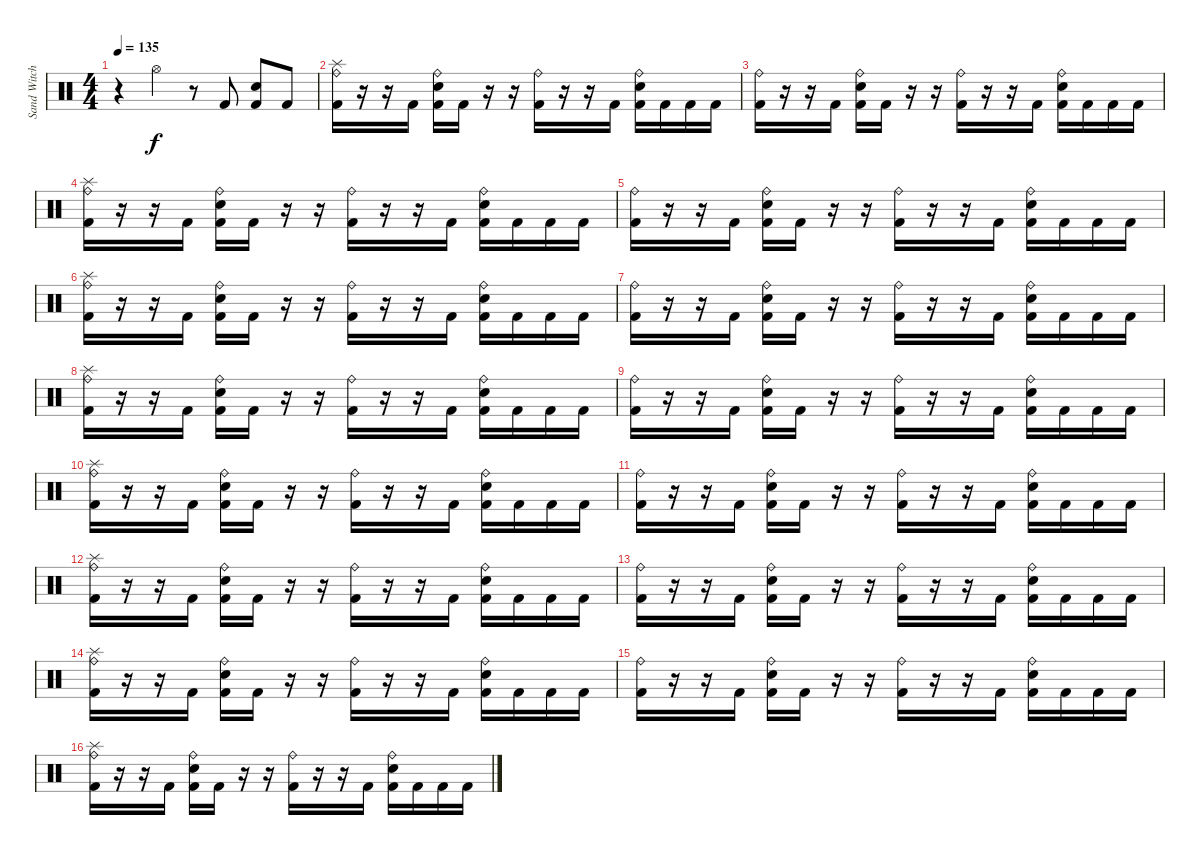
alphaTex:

\track ("Sand Witch" "Sand Witch") {instrument percussion}
\staff {score}
\articulation defaults
\ts (4 4)
\tempo 135
\clef neutral
\ks c
r.4{dy f} "Hi-Hat (open)".4 r.8 "Kick (hit) 2".8 ("Kick (hit) 2" "Snare (hit) 2").8 "Kick (hit) 2".8 |
("Ride (bell)" "Splash (hit)" "Kick (hit) 2").16 r.16 r.16 "Kick (hit) 2".16 ("Ride (bell)" "Snare (hit) 2" "Kick (hit) 2").16 "Kick (hit) 2".16 r.16 r.16 ("Ride (bell)" "Kick (hit) 2").16 r.16 r.16 "Kick (hit) 2".16 ("Ride (bell)" "Snare (hit) 2" "Kick (hit) 2").16 "Kick (hit) 2".16 "Kick (hit) 2".16 "Kick (hit) 2".16 |
("Ride (bell)" "Kick (hit) 2").16 r.16 r.16 "Kick (hit) 2".16 ("Ride (bell)" "Snare (hit) 2" "Kick (hit) 2").16 "Kick (hit) 2".16 r.16 r.16 ("Ride (bell)" "Kick (hit) 2").16 r.16 r.16 "Kick (hit) 2".16 ("Ride (bell)" "Snare (hit) 2" "Kick (hit) 2").16 "Kick (hit) 2".16 "Kick (hit) 2".16 "Kick (hit) 2".16 |
("Ride (bell)" "Splash (hit)" "Kick (hit) 2").16 r.16 r.16 "Kick (hit) 2".16 ("Ride (bell)" "Snare (hit) 2" "Kick (hit) 2").16 "Kick (hit) 2".16 r.16 r.16 ("Ride (bell)" "Kick (hit) 2").16 r.16 r.16 "Kick (hit) 2".16 ("Ride (bell)" "Snare (hit) 2" "Kick (hit) 2").16 "Kick (hit) 2".16 "Kick (hit) 2".16 "Kick (hit) 2".16 |
("Ride (bell)" "Kick (hit) 2").16 r.16 r.16 "Kick (hit) 2".16 ("Ride (bell)" "Snare (hit) 2" "Kick (hit) 2").16 "Kick (hit) 2".16 r.16 r.16 ("Ride (bell)" "Kick (hit) 2").16 r.16 r.16 "Kick (hit) 2".16 ("Ride (bell)" "Snare (hit) 2" "Kick (hit) 2").16 "Kick (hit) 2".16 "Kick (hit) 2".16 "Kick (hit) 2".16 |
("Ride (bell)" "Splash (hit)" "Kick (hit) 2").16 r.16 r.16 "Kick (hit) 2".16 ("Ride (bell)" "Snare (hit) 2" "Kick (hit) 2").16 "Kick (hit) 2".16 r.16 r.16 ("Ride (bell)" "Kick (hit) 2").16 r.16 r.16 "Kick (hit) 2".16 ("Ride (bell)" "Snare (hit) 2" "Kick (hit) 2").16 "Kick (hit) 2".16 "Kick (hit) 2".16 "Kick (hit) 2".16 |
("Ride (bell)" "Kick (hit) 2").16 r.16 r.16 "Kick (hit) 2".16 ("Ride (bell)" "Snare (hit) 2" "Kick (hit) 2").16 "Kick (hit) 2".16 r.16 r.16 ("Ride (bell)" "Kick (hit) 2").16 r.16 r.16 "Kick (hit) 2".16 ("Ride (bell)" "Snare (hit) 2" "Kick (hit) 2").16 "Kick (hit) 2".16 "Kick (hit) 2".16 "Kick (hit) 2".16 |
("Ride (bell)" "Splash (hit)" "Kick (hit) 2").16 r.16 r.16 "Kick (hit) 2".16 ("Ride (bell)" "Snare (hit) 2" "Kick (hit) 2").16 "Kick (hit) 2".16 r.16 r.16 ("Ride (bell)" "Kick (hit) 2").16 r.16 r.16 "Kick (hit) 2".16 ("Ride (bell)" "Snare (hit) 2" "Kick (hit) 2").16 "Kick (hit) 2".16 "Kick (hit) 2".16 "Kick (hit) 2".16 |
("Ride (bell)" "Kick (hit) 2").16 r.16 r.16 "Kick (hit) 2".16 ("Ride (bell)" "Snare (hit) 2" "Kick (hit) 2").16 "Kick (hit) 2".16 r.16 r.16 ("Ride (bell)" "Kick (hit) 2").16 r.16 r.16 "Kick (hit) 2".16 ("Ride (bell)" "Snare (hit) 2" "Kick (hit) 2").16 "Kick (hit) 2".16 "Kick (hit) 2".16 "Kick (hit) 2".16 |
("Ride (bell)" "Splash (hit)" "Kick (hit) 2").16 r.16 r.16 "Kick (hit) 2".16 ("Ride (bell)" "Snare (hit) 2" "Kick (hit) 2").16 "Kick (hit) 2".16 r.16 r.16 ("Ride (bell)" "Kick (hit) 2").16 r.16 r.16 "Kick (hit) 2".16 ("Ride (bell)" "Snare (hit) 2" "Kick (hit) 2").16 "Kick (hit) 2".16 "Kick (hit) 2".16 "Kick (hit) 2".16 |
("Ride (bell)" "Kick (hit) 2").16 r.16 r.16 "Kick (hit) 2".16 ("Ride (bell)" "Snare (hit) 2" "Kick (hit) 2").16 "Kick (hit) 2".16 r.16 r.16 ("Ride (bell)" "Kick (hit) 2").16 r.16 r.16 "Kick (hit) 2".16 ("Ride (bell)" "Snare (hit) 2" "Kick (hit) 2").16 "Kick (hit) 2".16 "Kick (hit) 2".16 "Kick (hit) 2".16 |
("Ride (bell)" "Splash (hit)" "Kick (hit) 2").16 r.16 r.16 "Kick (hit) 2".16 ("Ride (bell)" "Snare (hit) 2" "Kick (hit) 2").16 "Kick (hit) 2".16 r.16 r.16 ("Ride (bell)" "Kick (hit) 2").16 r.16 r.16 "Kick (hit) 2".16 ("Ride (bell)" "Snare (hit) 2" "Kick (hit) 2").16 "Kick (hit) 2".16 "Kick (hit) 2".16 "Kick (hit) 2".16 |
("Ride (bell)" "Kick (hit) 2").16 r.16 r.16 "Kick (hit) 2".16 ("Ride (bell)" "Snare (hit) 2" "Kick (hit) 2").16 "Kick (hit) 2".16 r.16 r.16 ("Ride (bell)" "Kick (hit) 2").16 r.16 r.16 "Kick (hit) 2".16 ("Ride (bell)" "Snare (hit) 2" "Kick (hit) 2").16 "Kick (hit) 2".16 "Kick (hit) 2".16 "Kick (hit) 2".16 |
("Ride (bell)" "Splash (hit)" "Kick (hit) 2").16 r.16 r.16 "Kick (hit) 2".16 ("Ride (bell)" "Snare (hit) 2" "Kick (hit) 2").16 "Kick (hit) 2".16 r.16 r.16 ("Ride (bell)" "Kick (hit) 2").16 r.16 r.16 "Kick (hit) 2".16 ("Ride (bell)" "Snare (hit) 2" "Kick (hit) 2").16 "Kick (hit) 2".16 "Kick (hit) 2".16 "Kick (hit) 2".16 |
("Ride (bell)" "Kick (hit) 2").16 r.16 r.16 "Kick (hit) 2".16 ("Ride (bell)" "Snare (hit) 2" "Kick (hit) 2").16 "Kick (hit) 2".16 r.16 r.16 ("Ride (bell)" "Kick (hit) 2").16 r.16 r.16 "Kick (hit) 2".16 ("Ride (bell)" "Snare (hit) 2" "Kick (hit) 2").16 "Kick (hit) 2".16 "Kick (hit) 2".16 "Kick (hit) 2".16 |
("Ride (bell)" "Splash (hit)" "Kick (hit) 2").16 r.16 r.16 "Kick (hit) 2".16 ("Ride (bell)" "Snare (hit) 2" "Kick (hit) 2").16 "Kick (hit) 2".16 r.16 r.16 ("Ride (bell)" "Kick (hit) 2").16 r.16 r.16 "Kick (hit) 2".16 ("Ride (bell)" "Snare (hit) 2" "Kick (hit) 2").16 "Kick (hit) 2".16 "Kick (hit) 2".16 "Kick (hit) 2".16
